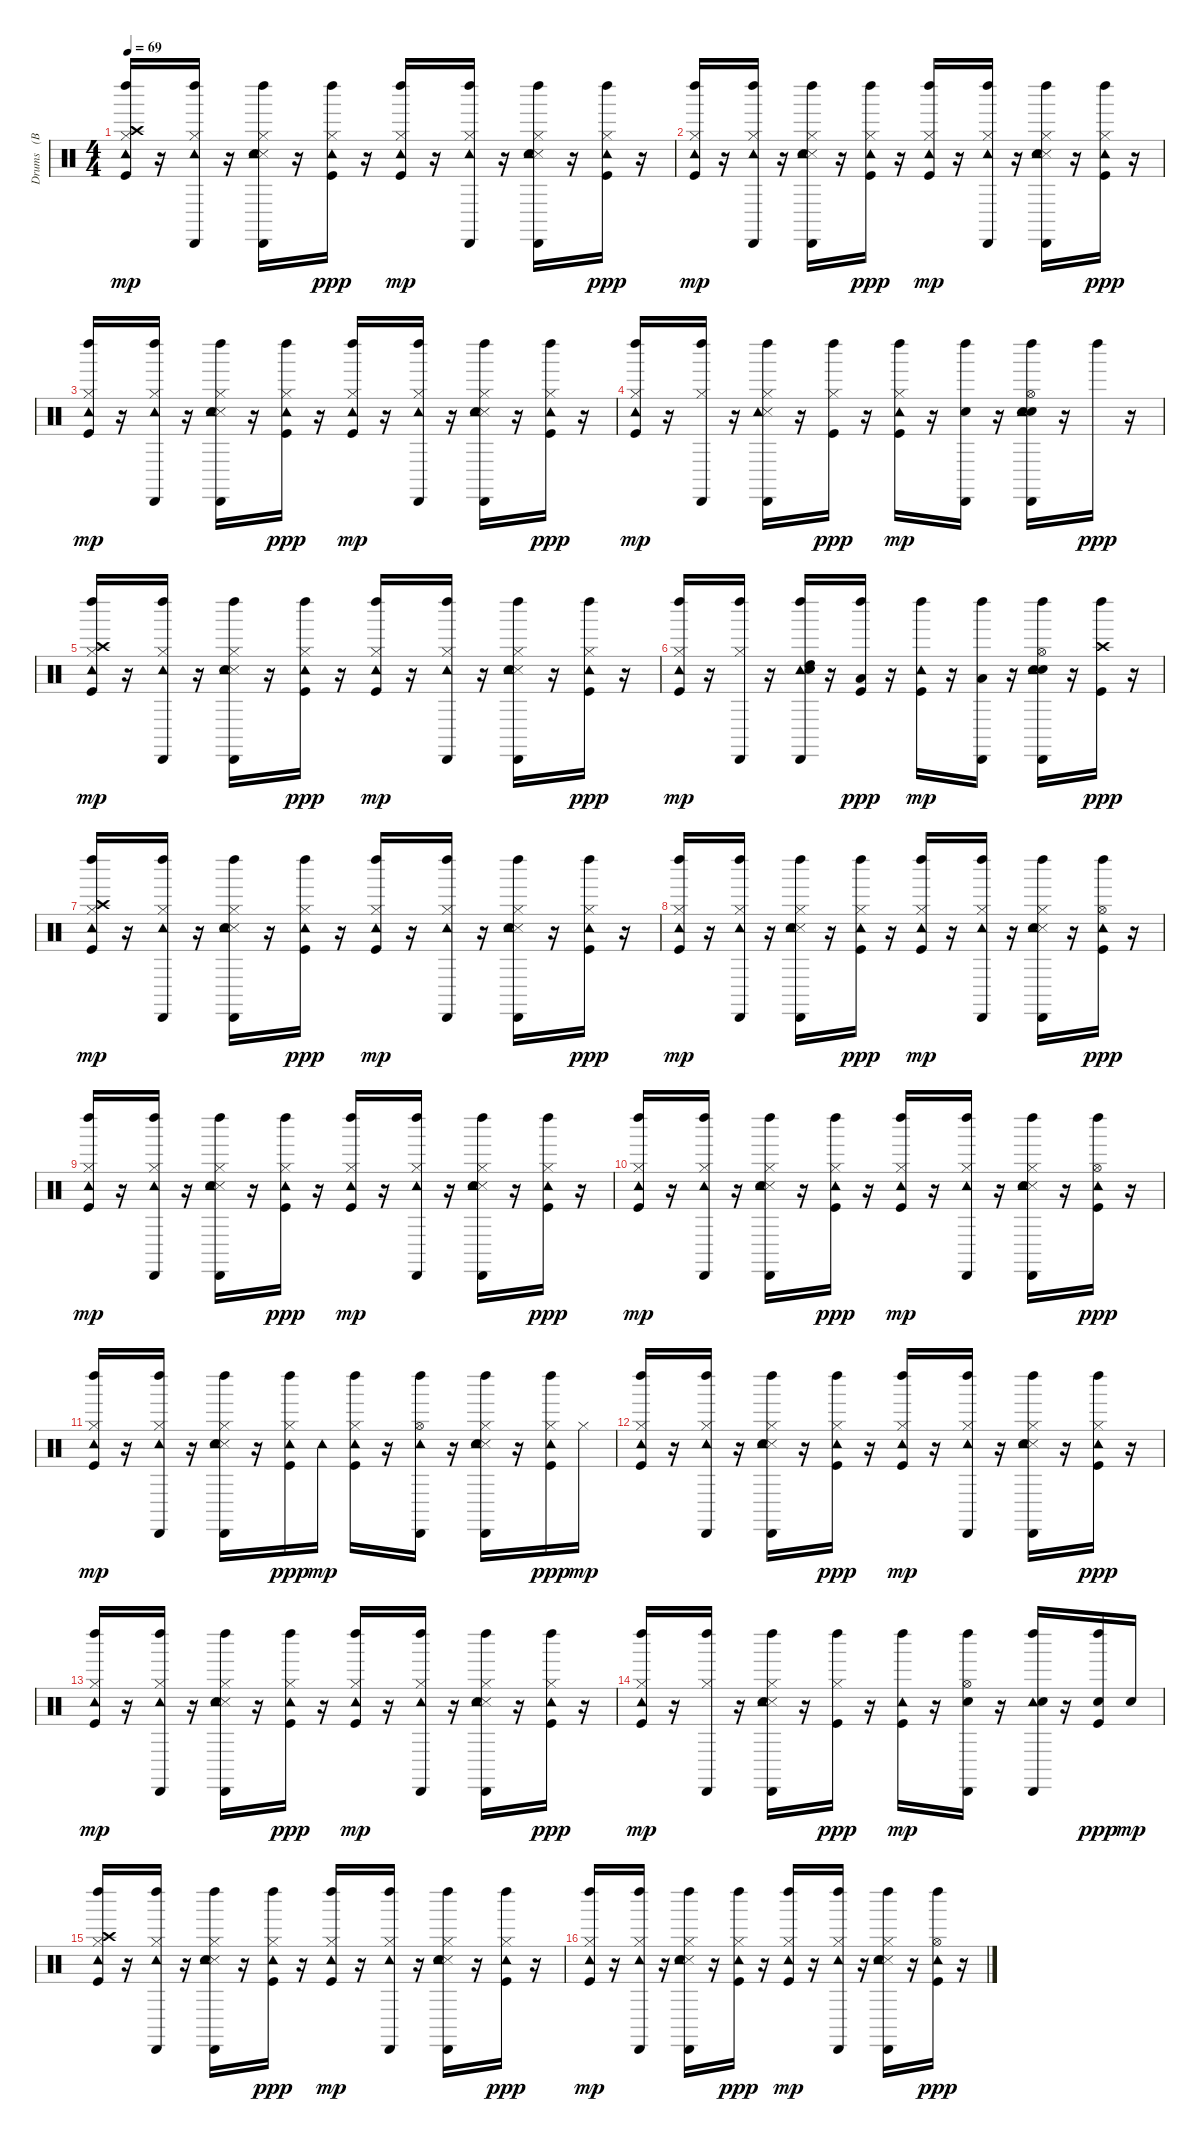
\track ("Drums   (BB)" "Drums   (B") {instrument percussion}
\staff {score}
\articulation defaults
\ts (4 4)
\tempo 69
\clef neutral
\ks c
("Kick (hit)" "Hi-Hat (closed)" "Crash high (hit)" "Tambourine (hit)" "Left Maraca (hit)").16{dy mp} r.16 ("Hi-Hat (closed)" "Tambourine (hit)" "Left Maraca (hit)" "Cabasa (hit)").16 r.16 ("Hi-Hat (closed)" "Snare (side stick) 3" "Tambourine (hit)" "Hand Clap (hit)" "Left Maraca (hit)" "Cabasa (hit)").16 r.16 ("Kick (hit)" "Hi-Hat (closed)" "Tambourine (hit)" "Left Maraca (hit)").16{dy ppp} r.16 ("Kick (hit)" "Hi-Hat (closed)" "Tambourine (hit)" "Left Maraca (hit)").16{dy mp} r.16 ("Hi-Hat (closed)" "Tambourine (hit)" "Left Maraca (hit)" "Cabasa (hit)").16 r.16 ("Hi-Hat (closed)" "Snare (side stick) 3" "Tambourine (hit)" "Hand Clap (hit)" "Left Maraca (hit)" "Cabasa (hit)").16 r.16 ("Kick (hit)" "Hi-Hat (closed)" "Tambourine (hit)" "Left Maraca (hit)").16{dy ppp} r.16 |
("Kick (hit)" "Hi-Hat (closed)" "Tambourine (hit)" "Left Maraca (hit)").16{dy mp} r.16 ("Hi-Hat (closed)" "Tambourine (hit)" "Left Maraca (hit)" "Cabasa (hit)").16 r.16 ("Hi-Hat (closed)" "Snare (side stick) 3" "Tambourine (hit)" "Hand Clap (hit)" "Left Maraca (hit)" "Cabasa (hit)").16 r.16 ("Kick (hit)" "Hi-Hat (closed)" "Tambourine (hit)" "Left Maraca (hit)").16{dy ppp} r.16 ("Kick (hit)" "Hi-Hat (closed)" "Tambourine (hit)" "Left Maraca (hit)").16{dy mp} r.16 ("Hi-Hat (closed)" "Tambourine (hit)" "Left Maraca (hit)" "Cabasa (hit)").16 r.16 ("Hi-Hat (closed)" "Snare (side stick) 3" "Tambourine (hit)" "Hand Clap (hit)" "Left Maraca (hit)" "Cabasa (hit)").16 r.16 ("Kick (hit)" "Hi-Hat (closed)" "Tambourine (hit)" "Left Maraca (hit)").16{dy ppp} r.16 |
("Kick (hit)" "Hi-Hat (closed)" "Tambourine (hit)" "Left Maraca (hit)").16{dy mp} r.16 ("Hi-Hat (closed)" "Tambourine (hit)" "Left Maraca (hit)" "Cabasa (hit)").16 r.16 ("Hi-Hat (closed)" "Snare (side stick) 3" "Tambourine (hit)" "Hand Clap (hit)" "Left Maraca (hit)" "Cabasa (hit)").16 r.16 ("Kick (hit)" "Hi-Hat (closed)" "Tambourine (hit)" "Left Maraca (hit)").16{dy ppp} r.16 ("Kick (hit)" "Hi-Hat (closed)" "Tambourine (hit)" "Left Maraca (hit)").16{dy mp} r.16 ("Hi-Hat (closed)" "Tambourine (hit)" "Left Maraca (hit)" "Cabasa (hit)").16 r.16 ("Hi-Hat (closed)" "Snare (side stick) 3" "Tambourine (hit)" "Hand Clap (hit)" "Left Maraca (hit)" "Cabasa (hit)").16 r.16 ("Kick (hit)" "Hi-Hat (closed)" "Tambourine (hit)" "Left Maraca (hit)").16{dy ppp} r.16 |
("Kick (hit)" "Hi-Hat (closed)" "Tambourine (hit)" "Left Maraca (hit)").16{dy mp} r.16 ("Hi-Hat (closed)" "Left Maraca (hit)" "Cabasa (hit)").16 r.16 ("Hi-Hat (closed)" "Snare (side stick) 3" "Tambourine (hit)" "Left Maraca (hit)" "Cabasa (hit)").16 r.16 ("Kick (hit)" "Hi-Hat (closed)" "Left Maraca (hit)").16{dy ppp} r.16 ("Kick (hit)" "Hi-Hat (closed)" "Tambourine (hit)" "Left Maraca (hit)").16{dy mp} r.16 ("Snare (hit) 2" "Left Maraca (hit)" "Cabasa (hit)").16 r.16 ("Snare (hit) 2" "Hi-Hat (open)" "Tambourine (hit)" "Hand Clap (hit)" "Left Maraca (hit)" "Cabasa (hit)").16 r.16 "Left Maraca (hit)".16{dy ppp} r.16 |
("Kick (hit)" "Hi-Hat (closed)" "Crash high (hit)" "Tambourine (hit)" "Left Maraca (hit)").16{dy mp} r.16 ("Hi-Hat (closed)" "Tambourine (hit)" "Left Maraca (hit)" "Cabasa (hit)").16 r.16 ("Hi-Hat (closed)" "Snare (side stick) 3" "Tambourine (hit)" "Hand Clap (hit)" "Left Maraca (hit)" "Cabasa (hit)").16 r.16 ("Kick (hit)" "Hi-Hat (closed)" "Tambourine (hit)" "Left Maraca (hit)").16{dy ppp} r.16 ("Kick (hit)" "Hi-Hat (closed)" "Tambourine (hit)" "Left Maraca (hit)").16{dy mp} r.16 ("Hi-Hat (closed)" "Tambourine (hit)" "Left Maraca (hit)" "Cabasa (hit)").16 r.16 ("Hi-Hat (closed)" "Snare (side stick) 3" "Tambourine (hit)" "Hand Clap (hit)" "Left Maraca (hit)" "Cabasa (hit)").16 r.16 ("Kick (hit)" "Hi-Hat (closed)" "Tambourine (hit)" "Left Maraca (hit)").16{dy ppp} r.16 |
("Kick (hit)" "Hi-Hat (closed)" "Tambourine (hit)" "Left Maraca (hit)").16{dy mp} r.16 ("Hi-Hat (closed)" "Left Maraca (hit)" "Cabasa (hit)").16 r.16 ("High Tom (hit)" "Tambourine (hit)" "Hand Clap (hit)" "Left Maraca (hit)" "Cabasa (hit)").16 r.16 ("Kick (hit)" "Low Tom (hit)" "Left Maraca (hit)").16{dy ppp} r.16 ("Kick (hit)" "Tambourine (hit)" "Left Maraca (hit)").16{dy mp} r.16 ("Low Tom (hit)" "Left Maraca (hit)" "Cabasa (hit)").16 r.16 ("Snare (hit) 2" "Hi-Hat (open)" "Tambourine (hit)" "Hand Clap (hit)" "Left Maraca (hit)" "Cabasa (hit)").16 r.16 ("Kick (hit)" "Crash high (hit)" "Left Maraca (hit)").16{dy ppp} r.16 |
("Kick (hit)" "Hi-Hat (closed)" "Crash high (hit)" "Tambourine (hit)" "Left Maraca (hit)").16{dy mp} r.16 ("Hi-Hat (closed)" "Tambourine (hit)" "Left Maraca (hit)" "Cabasa (hit)").16 r.16 ("Hi-Hat (closed)" "Snare (side stick) 3" "Tambourine (hit)" "Hand Clap (hit)" "Left Maraca (hit)" "Cabasa (hit)").16 r.16 ("Kick (hit)" "Hi-Hat (closed)" "Tambourine (hit)" "Left Maraca (hit)").16{dy ppp} r.16 ("Kick (hit)" "Hi-Hat (closed)" "Tambourine (hit)" "Left Maraca (hit)").16{dy mp} r.16 ("Hi-Hat (closed)" "Tambourine (hit)" "Left Maraca (hit)" "Cabasa (hit)").16 r.16 ("Hi-Hat (closed)" "Snare (side stick) 3" "Tambourine (hit)" "Hand Clap (hit)" "Left Maraca (hit)" "Cabasa (hit)").16 r.16 ("Kick (hit)" "Hi-Hat (closed)" "Tambourine (hit)" "Left Maraca (hit)").16{dy ppp} r.16 |
("Kick (hit)" "Hi-Hat (closed)" "Tambourine (hit)" "Left Maraca (hit)").16{dy mp} r.16 ("Hi-Hat (closed)" "Tambourine (hit)" "Left Maraca (hit)" "Cabasa (hit)").16 r.16 ("Hi-Hat (closed)" "Snare (side stick) 3" "Tambourine (hit)" "Hand Clap (hit)" "Left Maraca (hit)" "Cabasa (hit)").16 r.16 ("Kick (hit)" "Hi-Hat (closed)" "Tambourine (hit)" "Left Maraca (hit)").16{dy ppp} r.16 ("Kick (hit)" "Hi-Hat (closed)" "Tambourine (hit)" "Left Maraca (hit)").16{dy mp} r.16 ("Hi-Hat (closed)" "Tambourine (hit)" "Left Maraca (hit)" "Cabasa (hit)").16 r.16 ("Hi-Hat (closed)" "Snare (side stick) 3" "Tambourine (hit)" "Hand Clap (hit)" "Left Maraca (hit)" "Cabasa (hit)").16 r.16 ("Kick (hit)" "Hi-Hat (open)" "Tambourine (hit)" "Left Maraca (hit)").16{dy ppp} r.16 |
("Kick (hit)" "Hi-Hat (closed)" "Tambourine (hit)" "Left Maraca (hit)").16{dy mp} r.16 ("Hi-Hat (closed)" "Tambourine (hit)" "Left Maraca (hit)" "Cabasa (hit)").16 r.16 ("Hi-Hat (closed)" "Snare (side stick) 3" "Tambourine (hit)" "Hand Clap (hit)" "Left Maraca (hit)" "Cabasa (hit)").16 r.16 ("Kick (hit)" "Hi-Hat (closed)" "Tambourine (hit)" "Left Maraca (hit)").16{dy ppp} r.16 ("Kick (hit)" "Hi-Hat (closed)" "Tambourine (hit)" "Left Maraca (hit)").16{dy mp} r.16 ("Hi-Hat (closed)" "Tambourine (hit)" "Left Maraca (hit)" "Cabasa (hit)").16 r.16 ("Hi-Hat (closed)" "Snare (side stick) 3" "Tambourine (hit)" "Hand Clap (hit)" "Left Maraca (hit)" "Cabasa (hit)").16 r.16 ("Kick (hit)" "Hi-Hat (closed)" "Tambourine (hit)" "Left Maraca (hit)").16{dy ppp} r.16 |
("Kick (hit)" "Hi-Hat (closed)" "Tambourine (hit)" "Left Maraca (hit)").16{dy mp} r.16 ("Hi-Hat (closed)" "Tambourine (hit)" "Left Maraca (hit)" "Cabasa (hit)").16 r.16 ("Hi-Hat (closed)" "Snare (side stick) 3" "Tambourine (hit)" "Hand Clap (hit)" "Left Maraca (hit)" "Cabasa (hit)").16 r.16 ("Kick (hit)" "Hi-Hat (closed)" "Tambourine (hit)" "Left Maraca (hit)").16{dy ppp} r.16 ("Kick (hit)" "Hi-Hat (closed)" "Tambourine (hit)" "Left Maraca (hit)").16{dy mp} r.16 ("Hi-Hat (closed)" "Tambourine (hit)" "Left Maraca (hit)" "Cabasa (hit)").16 r.16 ("Hi-Hat (closed)" "Snare (side stick) 3" "Tambourine (hit)" "Hand Clap (hit)" "Left Maraca (hit)" "Cabasa (hit)").16 r.16 ("Kick (hit)" "Hi-Hat (open)" "Tambourine (hit)" "Left Maraca (hit)").16{dy ppp} r.16 |
("Kick (hit)" "Hi-Hat (closed)" "Tambourine (hit)" "Left Maraca (hit)").16{dy mp} r.16 ("Hi-Hat (closed)" "Tambourine (hit)" "Left Maraca (hit)" "Cabasa (hit)").16 r.16 ("Hi-Hat (closed)" "Snare (side stick) 3" "Tambourine (hit)" "Hand Clap (hit)" "Left Maraca (hit)" "Cabasa (hit)").16 r.16 ("Kick (hit)" "Hi-Hat (closed)" "Tambourine (hit)" "Left Maraca (hit)").16{dy ppp} "Tambourine (hit)".16{dy mp} ("Kick (hit)" "Hi-Hat (closed)" "Tambourine (hit)" "Left Maraca (hit)").16 r.16 ("Hi-Hat (open)" "Tambourine (hit)" "Left Maraca (hit)" "Cabasa (hit)").16 r.16 ("Hi-Hat (closed)" "Snare (side stick) 3" "Tambourine (hit)" "Hand Clap (hit)" "Left Maraca (hit)" "Cabasa (hit)").16 r.16 ("Kick (hit)" "Hi-Hat (closed)" "Tambourine (hit)" "Left Maraca (hit)").16{dy ppp} "Hi-Hat (closed)".16{dy mp} |
("Kick (hit)" "Hi-Hat (closed)" "Tambourine (hit)" "Left Maraca (hit)").16 r.16 ("Hi-Hat (closed)" "Tambourine (hit)" "Left Maraca (hit)" "Cabasa (hit)").16 r.16 ("Hi-Hat (closed)" "Snare (side stick) 3" "Tambourine (hit)" "Hand Clap (hit)" "Left Maraca (hit)" "Cabasa (hit)").16 r.16 ("Kick (hit)" "Hi-Hat (closed)" "Tambourine (hit)" "Left Maraca (hit)").16{dy ppp} r.16 ("Kick (hit)" "Hi-Hat (closed)" "Tambourine (hit)" "Left Maraca (hit)").16{dy mp} r.16 ("Hi-Hat (closed)" "Tambourine (hit)" "Left Maraca (hit)" "Cabasa (hit)").16 r.16 ("Hi-Hat (closed)" "Snare (side stick) 3" "Tambourine (hit)" "Hand Clap (hit)" "Left Maraca (hit)" "Cabasa (hit)").16 r.16 ("Kick (hit)" "Hi-Hat (closed)" "Tambourine (hit)" "Left Maraca (hit)").16{dy ppp} r.16 |
("Kick (hit)" "Hi-Hat (closed)" "Tambourine (hit)" "Left Maraca (hit)").16{dy mp} r.16 ("Hi-Hat (closed)" "Tambourine (hit)" "Left Maraca (hit)" "Cabasa (hit)").16 r.16 ("Hi-Hat (closed)" "Snare (side stick) 3" "Tambourine (hit)" "Hand Clap (hit)" "Left Maraca (hit)" "Cabasa (hit)").16 r.16 ("Kick (hit)" "Hi-Hat (closed)" "Tambourine (hit)" "Left Maraca (hit)").16{dy ppp} r.16 ("Kick (hit)" "Hi-Hat (closed)" "Tambourine (hit)" "Left Maraca (hit)").16{dy mp} r.16 ("Hi-Hat (closed)" "Tambourine (hit)" "Left Maraca (hit)" "Cabasa (hit)").16 r.16 ("Hi-Hat (closed)" "Snare (side stick) 3" "Tambourine (hit)" "Hand Clap (hit)" "Left Maraca (hit)" "Cabasa (hit)").16 r.16 ("Kick (hit)" "Hi-Hat (closed)" "Tambourine (hit)" "Left Maraca (hit)").16{dy ppp} r.16 |
("Kick (hit)" "Hi-Hat (closed)" "Tambourine (hit)" "Left Maraca (hit)").16{dy mp} r.16 ("Hi-Hat (closed)" "Left Maraca (hit)" "Cabasa (hit)").16 r.16 ("Hi-Hat (closed)" "Snare (side stick) 3" "Tambourine (hit)" "Hand Clap (hit)" "Left Maraca (hit)" "Cabasa (hit)").16 r.16 ("Kick (hit)" "Hi-Hat (closed)" "Left Maraca (hit)").16{dy ppp} r.16 ("Kick (hit)" "Tambourine (hit)" "Left Maraca (hit)").16{dy mp} r.16 ("Snare (hit) 2" "Hi-Hat (open)" "Left Maraca (hit)" "Cabasa (hit)").16 r.16 ("Tambourine (hit)" "Hand Clap (hit)" "Left Maraca (hit)" "Cabasa (hit)").16 r.16 ("Kick (hit)" "Snare (hit) 2" "Left Maraca (hit)").16{dy ppp} "Snare (hit) 2".16{dy mp} |
("Kick (hit)" "Hi-Hat (closed)" "Crash high (hit)" "Tambourine (hit)" "Left Maraca (hit)").16 r.16 ("Hi-Hat (closed)" "Tambourine (hit)" "Left Maraca (hit)" "Cabasa (hit)").16 r.16 ("Hi-Hat (closed)" "Snare (side stick) 3" "Tambourine (hit)" "Hand Clap (hit)" "Left Maraca (hit)" "Cabasa (hit)").16 r.16 ("Kick (hit)" "Hi-Hat (closed)" "Tambourine (hit)" "Left Maraca (hit)").16{dy ppp} r.16 ("Kick (hit)" "Hi-Hat (closed)" "Tambourine (hit)" "Left Maraca (hit)").16{dy mp} r.16 ("Hi-Hat (closed)" "Tambourine (hit)" "Left Maraca (hit)" "Cabasa (hit)").16 r.16 ("Hi-Hat (closed)" "Snare (side stick) 3" "Tambourine (hit)" "Hand Clap (hit)" "Left Maraca (hit)" "Cabasa (hit)").16 r.16 ("Kick (hit)" "Hi-Hat (closed)" "Tambourine (hit)" "Left Maraca (hit)").16{dy ppp} r.16 |
("Kick (hit)" "Hi-Hat (closed)" "Tambourine (hit)" "Left Maraca (hit)").16{dy mp} r.16 ("Hi-Hat (closed)" "Tambourine (hit)" "Left Maraca (hit)" "Cabasa (hit)").16 r.16 ("Hi-Hat (closed)" "Snare (side stick) 3" "Tambourine (hit)" "Hand Clap (hit)" "Left Maraca (hit)" "Cabasa (hit)").16 r.16 ("Kick (hit)" "Hi-Hat (closed)" "Tambourine (hit)" "Left Maraca (hit)").16{dy ppp} r.16 ("Kick (hit)" "Hi-Hat (closed)" "Tambourine (hit)" "Left Maraca (hit)").16{dy mp} r.16 ("Hi-Hat (closed)" "Tambourine (hit)" "Left Maraca (hit)" "Cabasa (hit)").16 r.16 ("Hi-Hat (closed)" "Snare (side stick) 3" "Tambourine (hit)" "Hand Clap (hit)" "Left Maraca (hit)" "Cabasa (hit)").16 r.16 ("Kick (hit)" "Hi-Hat (open)" "Tambourine (hit)" "Left Maraca (hit)").16{dy ppp} r.16
